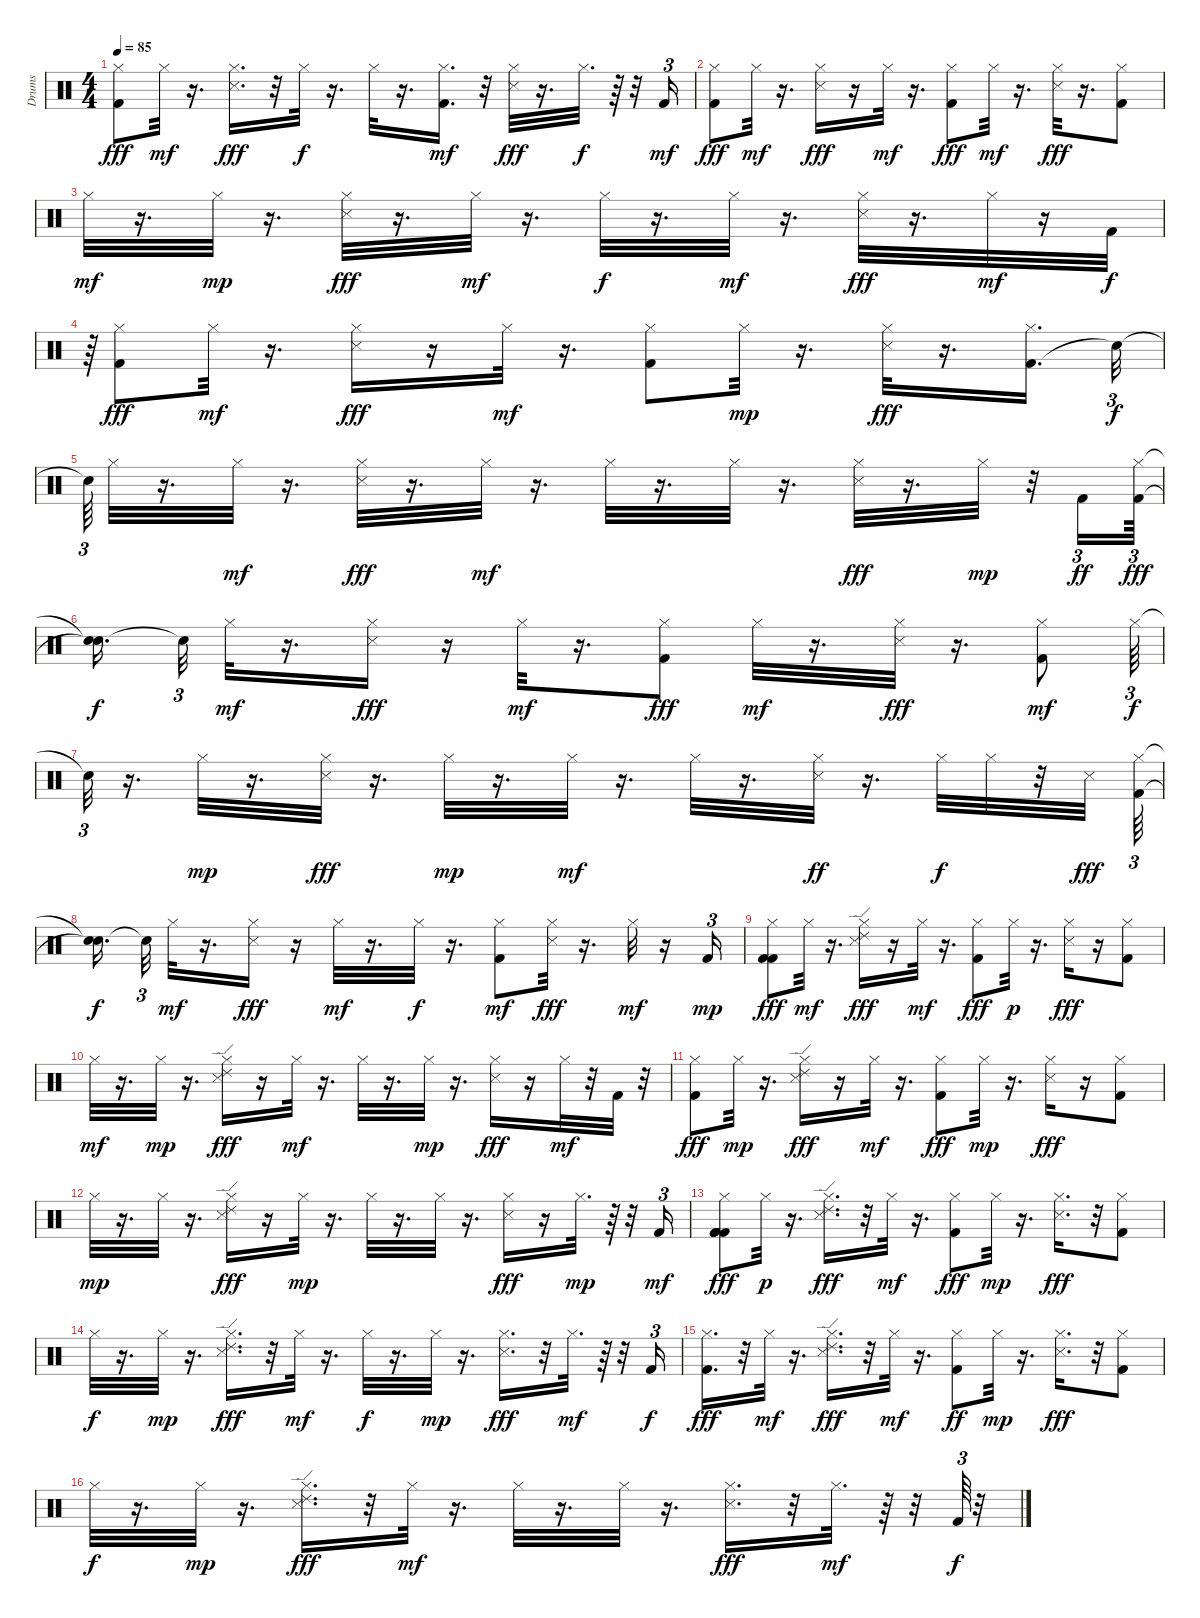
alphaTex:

\track ("Drums" "Drums") {instrument percussion}
\staff {score}
\articulation defaults
\ts (4 4)
\tempo 85
\clef neutral
\ks c
("Kick (hit) 2" "Hi-Hat (closed)").8{dy fff} "Hi-Hat (closed)".32{dy mf} r.16{d} ("Snare (side stick) 3" "Hi-Hat (closed)").16{d dy fff} r.32 "Hi-Hat (closed)".32{dy f} r.16{d} "Hi-Hat (closed)".32 r.16{d} ("Kick (hit) 2" "Hi-Hat (closed)").16{d dy mf} r.32 ("Snare (side stick) 3" "Hi-Hat (closed)").32{dy fff} r.16{d} "Hi-Hat (closed)".32{d dy f} r.64 r.32 "Kick (hit) 2".16{tu (3 2) dy mf} |
("Hi-Hat (closed)" "Kick (hit) 2").8{dy fff} "Hi-Hat (closed)".32{dy mf} r.16{d} ("Snare (side stick) 3" "Hi-Hat (closed)").16{dy fff} r.16 "Hi-Hat (closed)".32{dy mf} r.16{d} ("Kick (hit) 2" "Hi-Hat (closed)").8{dy fff} "Hi-Hat (closed)".32{dy mf} r.16{d} ("Snare (side stick) 3" "Hi-Hat (closed)").32{dy fff} r.16{d} ("Kick (hit) 2" "Hi-Hat (closed)").8 |
"Hi-Hat (closed)".32{dy mf} r.16{d} "Hi-Hat (closed)".32{dy mp} r.16{d} ("Snare (side stick) 3" "Hi-Hat (closed)").32{dy fff} r.16{d} "Hi-Hat (closed)".32{dy mf} r.16{d} "Hi-Hat (closed)".32{dy f} r.16{d} "Hi-Hat (closed)".32{dy mf} r.16{d} ("Snare (side stick) 3" "Hi-Hat (closed)").32{dy fff} r.16{d} "Hi-Hat (closed)".32{dy mf} r.16 "Kick (hit) 2".32{dy f} |
r.64{tu (3 2)} ("Kick (hit) 2" "Hi-Hat (closed)").8{dy fff} "Hi-Hat (closed)".32{dy mf} r.16{d} ("Snare (side stick) 3" "Hi-Hat (closed)").16{dy fff} r.16 "Hi-Hat (closed)".32{dy mf} r.16{d} ("Kick (hit) 2" "Hi-Hat (closed)").8 "Hi-Hat (closed)".32{dy mp} r.16{d} ("Snare (side stick) 3" "Hi-Hat (closed)").32{dy fff} r.16{d} ("Kick (hit) 2" "Hi-Hat (closed)").16{d} "Snare (hit)"{t}.32{tu (3 2) dy f} |
"Snare (hit)"{t}.64{tu (3 2)} "Hi-Hat (closed)".32 r.16{d} "Hi-Hat (closed)".32{dy mf} r.16{d} ("Snare (side stick) 3" "Hi-Hat (closed)").32{dy fff} r.16{d} "Hi-Hat (closed)".32{dy mf} r.16{d} "Hi-Hat (closed)".32 r.16{d} "Hi-Hat (closed)".32 r.16{d} ("Snare (side stick) 3" "Hi-Hat (closed)").32{dy fff} r.16{d} "Hi-Hat (closed)".32{dy mp} r.32 "Kick (hit) 2".16{tu (3 2) dy ff} ("Kick (hit) 2" "Hi-Hat (closed)").64{tu (3 2) dy fff} |
("Snare (hit)"{t} "Snare (hit)"{t}).16{d dy f beam splitsecondary} "Snare (hit)"{t}.32{tu (3 2)} "Hi-Hat (closed)".32{dy mf} r.16{d} ("Snare (side stick) 3" "Hi-Hat (closed)").16{dy fff} r.16 "Hi-Hat (closed)".32{dy mf} r.16{d} ("Kick (hit) 2" "Hi-Hat (closed)").8{dy fff} "Hi-Hat (closed)".32{dy mf} r.16{d} ("Snare (side stick) 3" "Hi-Hat (closed)").32{dy fff} r.16{d} ("Kick (hit) 2" "Hi-Hat (closed)").8{dy mf} "Hi-Hat (closed)".64{tu (3 2) dy f} |
"Snare (hit)"{t}.32{tu (3 2)} r.16{d} "Hi-Hat (closed)".32{dy mp} r.16{d} ("Snare (side stick) 3" "Hi-Hat (closed)").32{dy fff} r.16{d} "Hi-Hat (closed)".32{dy mp} r.16{d} "Hi-Hat (closed)".32{dy mf} r.16{d} "Hi-Hat (closed)".32 r.16{d} ("Snare (side stick) 3" "Hi-Hat (closed)").32{dy ff} r.16{d} "Hi-Hat (closed)".32{dy f} "Hi-Hat (closed)".32 r.32 "Snare (side stick) 3".32{dy fff} ("Kick (hit) 2" "Hi-Hat (closed)").64{tu (3 2)} |
("Snare (hit)"{t} "Snare (hit)"{t}).16{d dy f beam splitsecondary} "Snare (hit)"{t}.32{tu (3 2)} "Hi-Hat (closed)".32{dy mf} r.16{d} ("Snare (side stick) 3" "Hi-Hat (closed)").16{dy fff} r.16 "Hi-Hat (closed)".32{dy mf} r.16{d} "Hi-Hat (closed)".32{dy f} r.16{d} ("Kick (hit) 2" "Hi-Hat (closed)").8{dy mf} ("Snare (side stick) 3" "Hi-Hat (closed)").32{dy fff} r.16{d} "Hi-Hat (closed)".32{dy mf} r.16 "Kick (hit) 2".16{tu (3 2) dy mp} |
("Kick (hit) 2" "Hi-Hat (closed)" "Kick (hit) 2").8{dy fff} "Hi-Hat (closed)".32{dy mf} r.16{d} ("Ride (edge) 2" "Hi-Hat (closed)" "Snare (side stick) 3").16{dy fff} r.16 "Hi-Hat (closed)".32{dy mf} r.16{d} ("Hi-Hat (closed)" "Kick (hit) 2").8{dy fff} "Hi-Hat (closed)".32{dy p} r.16{d} ("Hi-Hat (closed)" "Snare (side stick) 3").16{dy fff} r.16 ("Hi-Hat (closed)" "Kick (hit) 2").8 |
"Hi-Hat (closed)".32{dy mf} r.16{d} "Hi-Hat (closed)".32{dy mp} r.16{d} ("Ride (edge) 2" "Hi-Hat (closed)" "Snare (side stick) 3").16{dy fff} r.16 "Hi-Hat (closed)".32{dy mf} r.16{d} "Hi-Hat (closed)".32 r.16{d} "Hi-Hat (closed)".32{dy mp} r.16{d} ("Hi-Hat (closed)" "Snare (side stick) 3").16{dy fff} r.16 "Hi-Hat (closed)".32{dy mf} r.32 "Kick (hit) 2".32 r.32 |
("Hi-Hat (closed)" "Kick (hit) 2").8{dy fff} "Hi-Hat (closed)".32{dy mp} r.16{d} ("Ride (edge) 2" "Hi-Hat (closed)" "Snare (side stick) 3").16{dy fff} r.16 "Hi-Hat (closed)".32{dy mf} r.16{d} ("Hi-Hat (closed)" "Kick (hit) 2").8{dy fff} "Hi-Hat (closed)".32{dy mp} r.16{d} ("Hi-Hat (closed)" "Snare (side stick) 3").16{dy fff} r.16 ("Hi-Hat (closed)" "Kick (hit) 2").8 |
"Hi-Hat (closed)".32{dy mp} r.16{d} "Hi-Hat (closed)".32 r.16{d} ("Ride (edge) 2" "Hi-Hat (closed)" "Snare (side stick) 3").16{dy fff} r.16 "Hi-Hat (closed)".32{dy mp} r.16{d} "Hi-Hat (closed)".32 r.16{d} "Hi-Hat (closed)".32 r.16{d} ("Hi-Hat (closed)" "Snare (side stick) 3").16{dy fff} r.16 "Hi-Hat (closed)".32{d dy mp} r.64 r.32 "Kick (hit) 2".16{tu (3 2) dy mf} |
("Hi-Hat (closed)" "Kick (hit) 2" "Kick (hit) 2" "Kick (hit) 2" "Kick (hit) 2").8{dy fff} "Hi-Hat (closed)".32{dy p} r.16{d} ("Ride (edge) 2" "Hi-Hat (closed)" "Snare (side stick) 3").16{d dy fff} r.32 "Hi-Hat (closed)".32{dy mf} r.16{d} ("Hi-Hat (closed)" "Kick (hit) 2").8{dy fff} "Hi-Hat (closed)".32{dy mp} r.16{d} ("Hi-Hat (closed)" "Snare (side stick) 3").16{d dy fff} r.32 ("Hi-Hat (closed)" "Kick (hit) 2").8 |
"Hi-Hat (closed)".32{dy f} r.16{d} "Hi-Hat (closed)".32{dy mp} r.16{d} ("Ride (edge) 2" "Hi-Hat (closed)" "Snare (side stick) 3").16{d dy fff} r.32 "Hi-Hat (closed)".32{dy mf} r.16{d} "Hi-Hat (closed)".32{dy f} r.16{d} "Hi-Hat (closed)".32{dy mp} r.16{d} ("Hi-Hat (closed)" "Snare (side stick) 3").16{d dy fff} r.32 "Hi-Hat (closed)".32{d dy mf} r.64 r.32 "Kick (hit) 2".16{tu (3 2) dy f} |
("Hi-Hat (closed)" "Kick (hit) 2").16{d dy fff} r.32 "Hi-Hat (closed)".32{dy mf} r.16{d} ("Ride (edge) 2" "Hi-Hat (closed)" "Snare (side stick) 3").16{d dy fff} r.32 "Hi-Hat (closed)".32{dy mf} r.16{d} ("Hi-Hat (closed)" "Kick (hit) 2").8{dy ff} "Hi-Hat (closed)".32{dy mp} r.16{d} ("Hi-Hat (closed)" "Snare (side stick) 3").16{d dy fff} r.32 ("Hi-Hat (closed)" "Kick (hit) 2").8 |
"Hi-Hat (closed)".32{dy f} r.16{d} "Hi-Hat (closed)".32{dy mp} r.16{d} ("Ride (edge) 2" "Hi-Hat (closed)" "Snare (side stick) 3").16{d dy fff} r.32 "Hi-Hat (closed)".32{dy mf} r.16{d} "Hi-Hat (closed)".32 r.16{d} "Hi-Hat (closed)".32 r.16{d} ("Hi-Hat (closed)" "Snare (side stick) 3").16{d dy fff} r.32 "Hi-Hat (closed)".32{d dy mf} r.64 r.32 "Kick (hit) 2".64{tu (3 2) dy f} r.32
